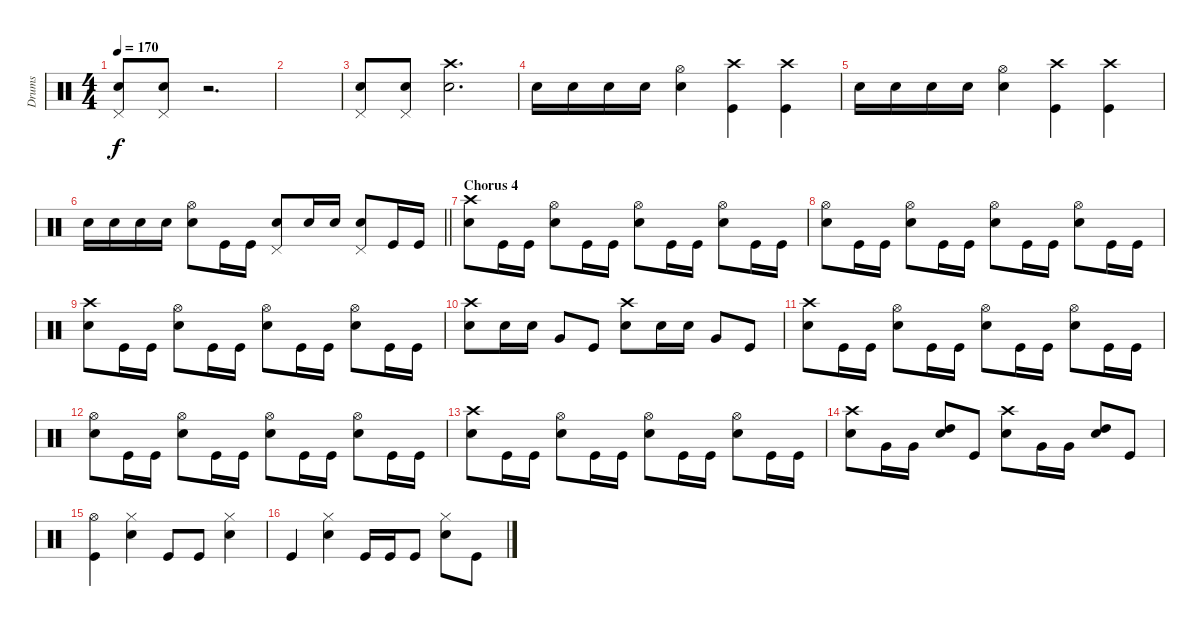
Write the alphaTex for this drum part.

\track ("Drums" "Drums") {instrument percussion}
\staff {score}
\articulation defaults
\ts (4 4)
\tempo 170
\clef neutral
\ks c
("Pedal Hi-Hat (hit)" "Snare (hit) 2").8{dy f} ("Pedal Hi-Hat (hit)" "Snare (hit) 2").8 r.2{d} |
|
("Pedal Hi-Hat (hit)" "Snare (hit) 2").8 ("Pedal Hi-Hat (hit)" "Snare (hit) 2").8 ("Crash high (hit)" "Snare (hit) 2").2{d} |
"Snare (hit) 2".16 "Snare (hit) 2".16 "Snare (hit) 2".16 "Snare (hit) 2".16 ("Hi-Hat (open)" "Snare (hit) 2").4 ("Crash high (hit)" "Kick (hit)").4 ("Crash high (hit)" "Kick (hit)").4 |
"Snare (hit) 2".16 "Snare (hit) 2".16 "Snare (hit) 2".16 "Snare (hit) 2".16 ("Hi-Hat (open)" "Snare (hit) 2").4 ("Crash high (hit)" "Kick (hit)").4 ("Crash high (hit)" "Kick (hit)").4 |
\barLineRight lightlight "Snare (hit) 2".16 "Snare (hit) 2".16 "Snare (hit) 2".16 "Snare (hit) 2".16
("Hi-Hat (open)" "Snare (hit) 2").8 "Kick (hit)".16 "Kick (hit)".16 ("Pedal Hi-Hat (hit)" "Snare (hit) 2").8 "Snare (hit) 2".16 "Snare (hit) 2".16 ("Pedal Hi-Hat (hit)" "Snare (hit) 2").8 "Kick (hit)".16 "Kick (hit)".16 |
\section ("" "Chorus 4")
("Crash high (hit)" "Snare (hit) 2").8 "Kick (hit)".16 "Kick (hit)".16 ("Hi-Hat (open)" "Snare (hit) 2").8 "Kick (hit)".16 "Kick (hit)".16 ("Hi-Hat (open)" "Snare (hit) 2").8 "Kick (hit)".16 "Kick (hit)".16 ("Hi-Hat (open)" "Snare (hit) 2").8 "Kick (hit)".16 "Kick (hit)".16 |
("Hi-Hat (open)" "Snare (hit) 2").8 "Kick (hit)".16 "Kick (hit)".16 ("Hi-Hat (open)" "Snare (hit) 2").8 "Kick (hit)".16 "Kick (hit)".16 ("Hi-Hat (open)" "Snare (hit) 2").8 "Kick (hit)".16 "Kick (hit)".16 ("Hi-Hat (open)" "Snare (hit) 2").8 "Kick (hit)".16 "Kick (hit)".16 |
("Crash high (hit)" "Snare (hit) 2").8 "Kick (hit)".16 "Kick (hit)".16 ("Hi-Hat (open)" "Snare (hit) 2").8 "Kick (hit)".16 "Kick (hit)".16 ("Hi-Hat (open)" "Snare (hit) 2").8 "Kick (hit)".16 "Kick (hit)".16 ("Hi-Hat (open)" "Snare (hit) 2").8 "Kick (hit)".16 "Kick (hit)".16 |
("Crash high (hit)" "Snare (hit) 2").8 "Snare (hit) 2".16 "Snare (hit) 2".16 "Very Low Tom (hit)".8 "Kick (hit)".8 ("Crash high (hit)" "Snare (hit) 2").8 "Snare (hit) 2".16 "Snare (hit) 2".16 "Very Low Tom (hit)".8 "Kick (hit)".8 |
("Crash high (hit)" "Snare (hit) 2").8 "Kick (hit)".16 "Kick (hit)".16 ("Hi-Hat (open)" "Snare (hit) 2").8 "Kick (hit)".16 "Kick (hit)".16 ("Hi-Hat (open)" "Snare (hit) 2").8 "Kick (hit)".16 "Kick (hit)".16 ("Hi-Hat (open)" "Snare (hit) 2").8 "Kick (hit)".16 "Kick (hit)".16 |
("Hi-Hat (open)" "Snare (hit) 2").8 "Kick (hit)".16 "Kick (hit)".16 ("Hi-Hat (open)" "Snare (hit) 2").8 "Kick (hit)".16 "Kick (hit)".16 ("Hi-Hat (open)" "Snare (hit) 2").8 "Kick (hit)".16 "Kick (hit)".16 ("Hi-Hat (open)" "Snare (hit) 2").8 "Kick (hit)".16 "Kick (hit)".16 |
("Crash high (hit)" "Snare (hit) 2").8 "Kick (hit)".16 "Kick (hit)".16 ("Hi-Hat (open)" "Snare (hit) 2").8 "Kick (hit)".16 "Kick (hit)".16 ("Hi-Hat (open)" "Snare (hit) 2").8 "Kick (hit)".16 "Kick (hit)".16 ("Hi-Hat (open)" "Snare (hit) 2").8 "Kick (hit)".16 "Kick (hit)".16 |
("Crash high (hit)" "Snare (hit) 2").8 "Very Low Tom (hit)".16 "Very Low Tom (hit)".16 ("High Tom (hit)" "Snare (hit) 2").8 "Kick (hit)".8 ("Crash high (hit)" "Snare (hit) 2").8 "Very Low Tom (hit)".16 "Very Low Tom (hit)".16 ("High Tom (hit)" "Snare (hit) 2").8 "Kick (hit)".8 |
("Hi-Hat (open)" "Kick (hit)").4 ("Hi-Hat (closed)" "Snare (hit) 2").4 "Kick (hit)".8 "Kick (hit)".8 ("Hi-Hat (closed)" "Snare (hit) 2").4 |
"Kick (hit)".4 ("Hi-Hat (closed)" "Snare (hit) 2").4 "Kick (hit)".16 "Kick (hit)".16 "Kick (hit)".8 ("Hi-Hat (closed)" "Snare (hit) 2").8 "Kick (hit)".8
